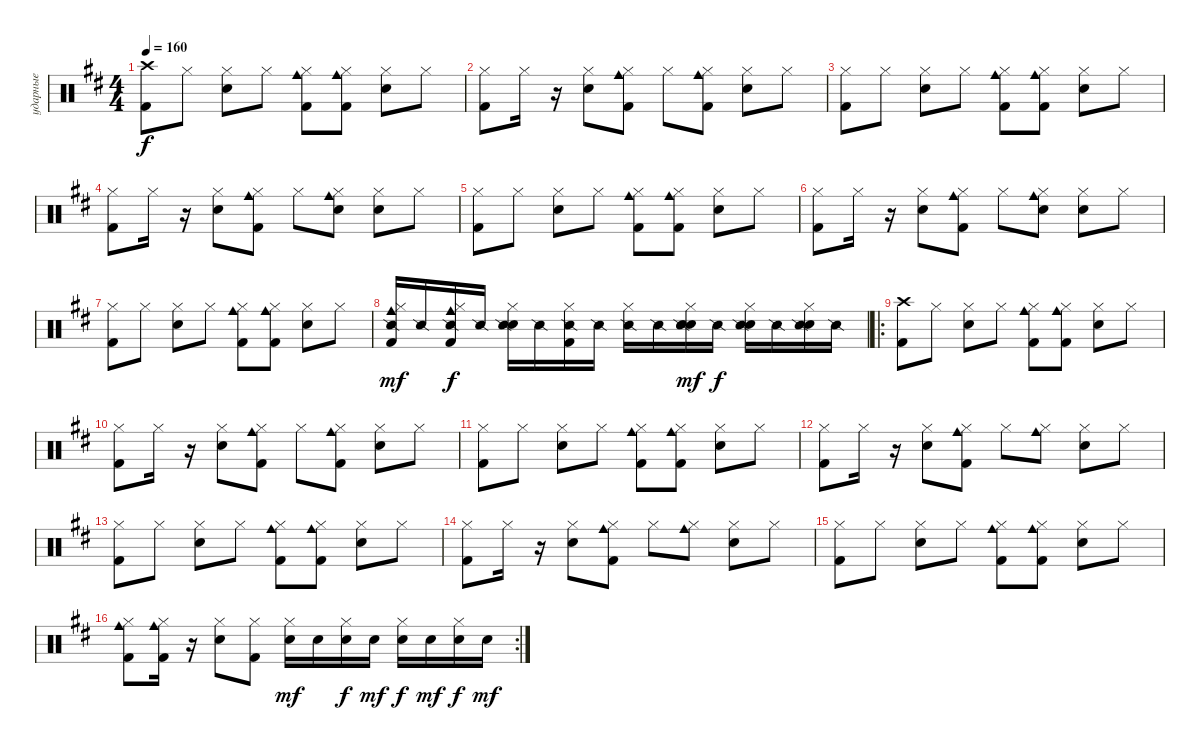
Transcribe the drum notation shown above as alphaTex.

\track ("ударные" "ударные") {instrument percussion}
\staff {score}
\articulation defaults
\ts (4 4)
\tempo 160
\clef neutral
\ks bminor
("Crash high (hit)" "Kick (hit) 2").8{dy f} "Hi-Hat (closed)".8 ("Hi-Hat (closed)" "Snare (hit) 2").8 "Hi-Hat (closed)".8 ("Hi-Hat (closed)" "Cowbell medium (hit)" "Kick (hit) 2").8 ("Hi-Hat (closed)" "Cowbell medium (hit)" "Kick (hit) 2").8 ("Hi-Hat (closed)" "Snare (hit) 2").8 "Hi-Hat (closed)".8 |
("Hi-Hat (closed)" "Kick (hit) 2").8 "Hi-Hat (closed)".16 r.16 ("Hi-Hat (closed)" "Snare (hit) 2").8 ("Hi-Hat (closed)" "Kick (hit) 2" "Cowbell medium (hit)").8 "Hi-Hat (closed)".8 ("Hi-Hat (closed)" "Kick (hit) 2" "Cowbell medium (hit)").8 ("Hi-Hat (closed)" "Snare (hit) 2").8 "Hi-Hat (closed)".8 |
("Hi-Hat (closed)" "Kick (hit) 2").8 "Hi-Hat (closed)".8 ("Hi-Hat (closed)" "Snare (hit) 2").8 "Hi-Hat (closed)".8 ("Hi-Hat (closed)" "Cowbell medium (hit)" "Kick (hit) 2").8 ("Hi-Hat (closed)" "Cowbell medium (hit)" "Kick (hit) 2").8 ("Hi-Hat (closed)" "Snare (hit) 2").8 "Hi-Hat (closed)".8 |
("Hi-Hat (closed)" "Kick (hit) 2").8 "Hi-Hat (closed)".16 r.16 ("Hi-Hat (closed)" "Snare (hit) 2").8 ("Hi-Hat (closed)" "Kick (hit) 2" "Cowbell medium (hit)").8 "Hi-Hat (closed)".8 ("Hi-Hat (closed)" "Hand Clap (hit)" "Cowbell medium (hit)").8 ("Hi-Hat (closed)" "Snare (hit) 2").8 "Hi-Hat (closed)".8 |
("Hi-Hat (closed)" "Kick (hit) 2").8 "Hi-Hat (closed)".8 ("Hi-Hat (closed)" "Snare (hit) 2").8 "Hi-Hat (closed)".8 ("Hi-Hat (closed)" "Cowbell medium (hit)" "Kick (hit) 2").8 ("Hi-Hat (closed)" "Cowbell medium (hit)" "Kick (hit) 2").8 ("Hi-Hat (closed)" "Snare (hit) 2").8 "Hi-Hat (closed)".8 |
("Hi-Hat (closed)" "Kick (hit) 2").8 "Hi-Hat (closed)".16 r.16 ("Hi-Hat (closed)" "Snare (hit) 2").8 ("Hi-Hat (closed)" "Kick (hit) 2" "Cowbell medium (hit)").8 "Hi-Hat (closed)".8 ("Hi-Hat (closed)" "Hand Clap (hit)" "Cowbell medium (hit)").8 ("Hi-Hat (closed)" "Snare (hit) 2").8 "Hi-Hat (closed)".8 |
("Hi-Hat (closed)" "Kick (hit) 2").8 "Hi-Hat (closed)".8 ("Hi-Hat (closed)" "Snare (hit) 2").8 "Hi-Hat (closed)".8 ("Hi-Hat (closed)" "Cowbell medium (hit)" "Kick (hit) 2").8 ("Hi-Hat (closed)" "Cowbell medium (hit)" "Kick (hit) 2").8 ("Hi-Hat (closed)" "Snare (hit) 2").8 "Hi-Hat (closed)".8 |
("Cowbell medium (hit)" "Hi-Hat (closed)" "Kick (hit) 2" "Snare (side stick) 2").16{dy mf} "Snare (side stick) 2".16 ("Cowbell medium (hit)" "Kick (hit) 2" "Hi-Hat (closed)" "Snare (side stick) 2").16{dy f} "Snare (side stick) 2".16 ("Hi-Hat (closed)" "Snare (hit) 2" "Snare (side stick) 2").16 "Snare (side stick) 2".16 ("Hi-Hat (closed)" "Kick (hit) 2" "Snare (side stick) 2").16 "Snare (side stick) 2".16 ("Hi-Hat (closed)" "Snare (side stick) 2").16 "Snare (side stick) 2".16 ("Hi-Hat (closed)" "Snare (hit) 2" "Hand Clap (hit)" "Snare (side stick) 2").16{dy mf} "Snare (side stick) 2".16{dy f} ("Hi-Hat (closed)" "Snare (hit) 2" "Snare (side stick) 2").16 "Snare (side stick) 2".16 ("Snare (hit) 2" "Hi-Hat (closed)" "Snare (side stick) 2").16 "Snare (side stick) 2".16 |
\ro
("Crash high (hit)" "Kick (hit) 2").8 "Hi-Hat (closed)".8 ("Hi-Hat (closed)" "Snare (hit) 2").8 "Hi-Hat (closed)".8 ("Hi-Hat (closed)" "Cowbell medium (hit)" "Kick (hit) 2").8 ("Hi-Hat (closed)" "Cowbell medium (hit)" "Kick (hit) 2").8 ("Hi-Hat (closed)" "Snare (hit) 2").8 "Hi-Hat (closed)".8 |
("Hi-Hat (closed)" "Kick (hit) 2").8 "Hi-Hat (closed)".16 r.16 ("Hi-Hat (closed)" "Snare (hit) 2").8 ("Hi-Hat (closed)" "Kick (hit) 2" "Cowbell medium (hit)").8 "Hi-Hat (closed)".8 ("Hi-Hat (closed)" "Kick (hit) 2" "Cowbell medium (hit)").8 ("Hi-Hat (closed)" "Snare (hit) 2").8 "Hi-Hat (closed)".8 |
("Hi-Hat (closed)" "Kick (hit) 2").8 "Hi-Hat (closed)".8 ("Hi-Hat (closed)" "Snare (hit) 2").8 "Hi-Hat (closed)".8 ("Hi-Hat (closed)" "Cowbell medium (hit)" "Kick (hit) 2").8 ("Hi-Hat (closed)" "Cowbell medium (hit)" "Kick (hit) 2").8 ("Hi-Hat (closed)" "Snare (hit) 2").8 "Hi-Hat (closed)".8 |
("Hi-Hat (closed)" "Kick (hit) 2").8 "Hi-Hat (closed)".16 r.16 ("Hi-Hat (closed)" "Snare (hit) 2").8 ("Hi-Hat (closed)" "Kick (hit) 2" "Cowbell medium (hit)").8 "Hi-Hat (closed)".8 ("Hi-Hat (closed)" "Cowbell medium (hit)").8 ("Hi-Hat (closed)" "Snare (hit) 2").8 "Hi-Hat (closed)".8 |
("Hi-Hat (closed)" "Kick (hit) 2").8 "Hi-Hat (closed)".8 ("Hi-Hat (closed)" "Snare (hit) 2").8 "Hi-Hat (closed)".8 ("Hi-Hat (closed)" "Cowbell medium (hit)" "Kick (hit) 2").8 ("Hi-Hat (closed)" "Cowbell medium (hit)" "Kick (hit) 2").8 ("Hi-Hat (closed)" "Snare (hit) 2").8 "Hi-Hat (closed)".8 |
("Hi-Hat (closed)" "Kick (hit) 2").8 "Hi-Hat (closed)".16 r.16 ("Hi-Hat (closed)" "Snare (hit) 2").8 ("Hi-Hat (closed)" "Kick (hit) 2" "Cowbell medium (hit)").8 "Hi-Hat (closed)".8 ("Hi-Hat (closed)" "Cowbell medium (hit)").8 ("Hi-Hat (closed)" "Snare (hit) 2").8 "Hi-Hat (closed)".8 |
("Hi-Hat (closed)" "Kick (hit) 2").8 "Hi-Hat (closed)".8 ("Hi-Hat (closed)" "Snare (hit) 2").8 "Hi-Hat (closed)".8 ("Hi-Hat (closed)" "Cowbell medium (hit)" "Kick (hit) 2").8 ("Hi-Hat (closed)" "Cowbell medium (hit)" "Kick (hit) 2").8 ("Hi-Hat (closed)" "Snare (hit) 2").8 "Hi-Hat (closed)".8 |
\rc 2
("Cowbell medium (hit)" "Hi-Hat (closed)" "Kick (hit) 2").8 ("Cowbell medium (hit)" "Kick (hit) 2" "Hi-Hat (closed)").16 r.16 ("Hi-Hat (closed)" "Snare (hit) 2").8 ("Hi-Hat (closed)" "Kick (hit) 2").8 ("Snare (hit) 2" "Hi-Hat (closed)").16{dy mf} "Snare (hit) 2".16 ("Hi-Hat (closed)" "Snare (hit) 2").16{dy f} "Snare (hit) 2".16{dy mf} ("Hi-Hat (closed)" "Snare (hit) 2").16{dy f} "Snare (hit) 2".16{dy mf} ("Snare (hit) 2" "Hi-Hat (closed)").16{dy f} "Snare (hit) 2".16{dy mf}
